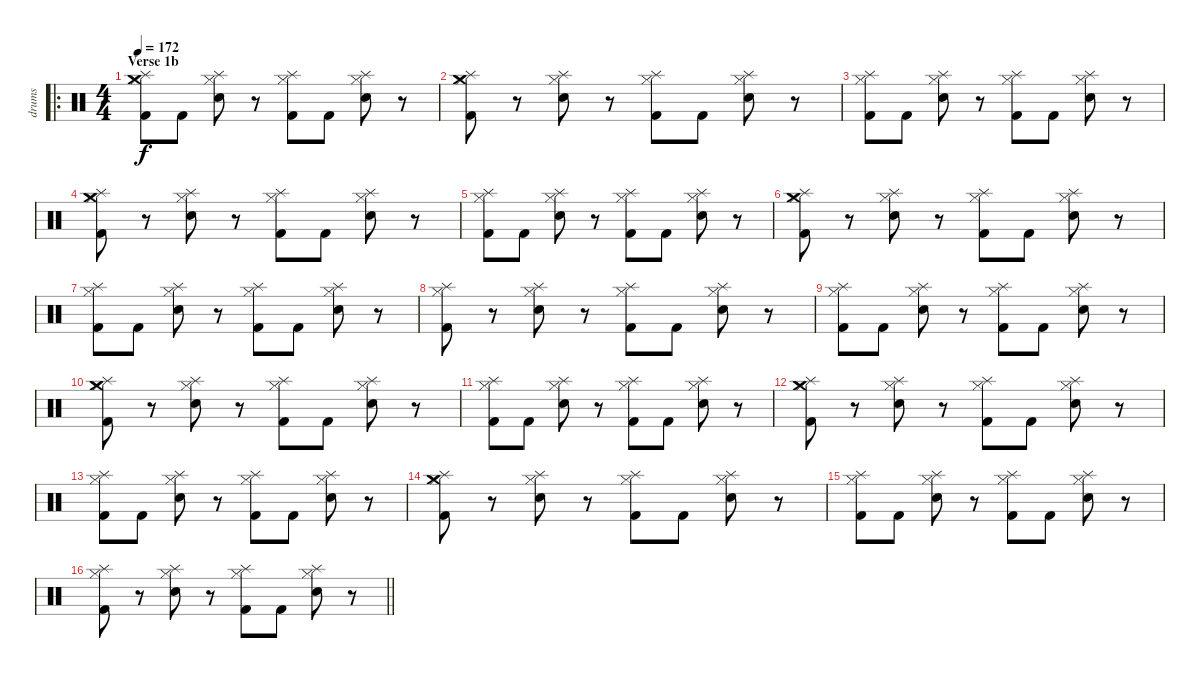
\track ("drums" "drums") {instrument percussion}
\staff {score}
\articulation defaults
\ro
\ts (4 4)
\section ("" "Verse 1b")
\tempo 172
\clef neutral
\ks c
("Crash medium (hit)" "Hi-Hat (closed)" "Splash (hit)" "Kick (hit) 2").8{dy f} "Kick (hit) 2".8 ("Hi-Hat (closed)" "Splash (hit)" "Electric Snare (hit)").8 r.8 ("Hi-Hat (closed)" "Splash (hit)" "Kick (hit) 2").8 "Kick (hit) 2".8 ("Hi-Hat (closed)" "Splash (hit)" "Electric Snare (hit)").8 r.8 |
("Crash medium (hit)" "Hi-Hat (closed)" "Splash (hit)" "Kick (hit) 2").8 r.8 ("Hi-Hat (closed)" "Splash (hit)" "Electric Snare (hit)").8 r.8 ("Hi-Hat (closed)" "Splash (hit)" "Kick (hit) 2").8 "Kick (hit) 2".8 ("Hi-Hat (closed)" "Splash (hit)" "Electric Snare (hit)").8 r.8 |
("Hi-Hat (closed)" "Splash (hit)" "Kick (hit) 2").8 "Kick (hit) 2".8 ("Hi-Hat (closed)" "Splash (hit)" "Electric Snare (hit)").8 r.8 ("Hi-Hat (closed)" "Splash (hit)" "Kick (hit) 2").8 "Kick (hit) 2".8 ("Hi-Hat (closed)" "Splash (hit)" "Electric Snare (hit)").8 r.8 |
("Crash medium (hit)" "Hi-Hat (closed)" "Splash (hit)" "Kick (hit) 2").8 r.8 ("Hi-Hat (closed)" "Splash (hit)" "Electric Snare (hit)").8 r.8 ("Hi-Hat (closed)" "Splash (hit)" "Kick (hit) 2").8 "Kick (hit) 2".8 ("Hi-Hat (closed)" "Splash (hit)" "Electric Snare (hit)").8 r.8 |
("Hi-Hat (closed)" "Splash (hit)" "Kick (hit) 2").8 "Kick (hit) 2".8 ("Hi-Hat (closed)" "Splash (hit)" "Electric Snare (hit)").8 r.8 ("Hi-Hat (closed)" "Splash (hit)" "Kick (hit) 2").8 "Kick (hit) 2".8 ("Hi-Hat (closed)" "Splash (hit)" "Electric Snare (hit)").8 r.8 |
("Crash medium (hit)" "Hi-Hat (closed)" "Splash (hit)" "Kick (hit) 2").8 r.8 ("Hi-Hat (closed)" "Splash (hit)" "Electric Snare (hit)").8 r.8 ("Hi-Hat (closed)" "Splash (hit)" "Kick (hit) 2").8 "Kick (hit) 2".8 ("Hi-Hat (closed)" "Splash (hit)" "Electric Snare (hit)").8 r.8 |
("Hi-Hat (closed)" "Splash (hit)" "Kick (hit) 2").8 "Kick (hit) 2".8 ("Hi-Hat (closed)" "Splash (hit)" "Electric Snare (hit)").8 r.8 ("Hi-Hat (closed)" "Splash (hit)" "Kick (hit) 2").8 "Kick (hit) 2".8 ("Hi-Hat (closed)" "Splash (hit)" "Electric Snare (hit)").8 r.8 |
("Hi-Hat (closed)" "Splash (hit)" "Kick (hit) 2").8 r.8 ("Hi-Hat (closed)" "Splash (hit)" "Electric Snare (hit)").8 r.8 ("Hi-Hat (closed)" "Splash (hit)" "Kick (hit) 2").8 "Kick (hit) 2".8 ("Hi-Hat (closed)" "Splash (hit)" "Electric Snare (hit)").8 r.8 |
("Hi-Hat (closed)" "Splash (hit)" "Kick (hit) 2").8 "Kick (hit) 2".8 ("Hi-Hat (closed)" "Splash (hit)" "Electric Snare (hit)").8 r.8 ("Hi-Hat (closed)" "Splash (hit)" "Kick (hit) 2").8 "Kick (hit) 2".8 ("Hi-Hat (closed)" "Splash (hit)" "Electric Snare (hit)").8 r.8 |
("Crash medium (hit)" "Hi-Hat (closed)" "Splash (hit)" "Kick (hit) 2").8 r.8 ("Hi-Hat (closed)" "Splash (hit)" "Electric Snare (hit)").8 r.8 ("Hi-Hat (closed)" "Splash (hit)" "Kick (hit) 2").8 "Kick (hit) 2".8 ("Hi-Hat (closed)" "Splash (hit)" "Electric Snare (hit)").8 r.8 |
("Hi-Hat (closed)" "Splash (hit)" "Kick (hit) 2").8 "Kick (hit) 2".8 ("Hi-Hat (closed)" "Splash (hit)" "Electric Snare (hit)").8 r.8 ("Hi-Hat (closed)" "Splash (hit)" "Kick (hit) 2").8 "Kick (hit) 2".8 ("Hi-Hat (closed)" "Splash (hit)" "Electric Snare (hit)").8 r.8 |
("Crash medium (hit)" "Hi-Hat (closed)" "Splash (hit)" "Kick (hit) 2").8 r.8 ("Hi-Hat (closed)" "Splash (hit)" "Electric Snare (hit)").8 r.8 ("Hi-Hat (closed)" "Splash (hit)" "Kick (hit) 2").8 "Kick (hit) 2".8 ("Hi-Hat (closed)" "Splash (hit)" "Electric Snare (hit)").8 r.8 |
("Hi-Hat (closed)" "Splash (hit)" "Kick (hit) 2").8 "Kick (hit) 2".8 ("Hi-Hat (closed)" "Splash (hit)" "Electric Snare (hit)").8 r.8 ("Hi-Hat (closed)" "Splash (hit)" "Kick (hit) 2").8 "Kick (hit) 2".8 ("Hi-Hat (closed)" "Splash (hit)" "Electric Snare (hit)").8 r.8 |
("Crash medium (hit)" "Hi-Hat (closed)" "Splash (hit)" "Kick (hit) 2").8 r.8 ("Hi-Hat (closed)" "Splash (hit)" "Electric Snare (hit)").8 r.8 ("Hi-Hat (closed)" "Splash (hit)" "Kick (hit) 2").8 "Kick (hit) 2".8 ("Hi-Hat (closed)" "Splash (hit)" "Electric Snare (hit)").8 r.8 |
("Hi-Hat (closed)" "Splash (hit)" "Kick (hit) 2").8 "Kick (hit) 2".8 ("Hi-Hat (closed)" "Splash (hit)" "Electric Snare (hit)").8 r.8 ("Hi-Hat (closed)" "Splash (hit)" "Kick (hit) 2").8 "Kick (hit) 2".8 ("Hi-Hat (closed)" "Splash (hit)" "Electric Snare (hit)").8 r.8 |
\barLineRight lightlight
("Hi-Hat (closed)" "Splash (hit)" "Kick (hit) 2").8 r.8 ("Hi-Hat (closed)" "Splash (hit)" "Electric Snare (hit)").8 r.8 ("Hi-Hat (closed)" "Splash (hit)" "Kick (hit) 2").8 "Kick (hit) 2".8 ("Hi-Hat (closed)" "Splash (hit)" "Electric Snare (hit)").8 r.8
